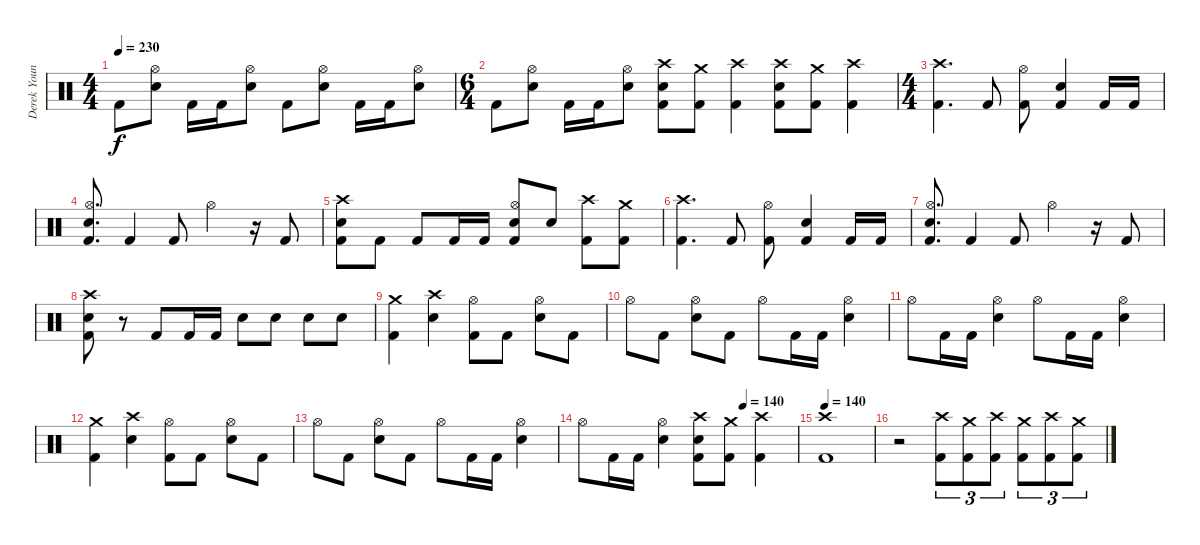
\track ("Derek Youngsma" "Derek Youn") {instrument percussion}
\staff {score}
\articulation defaults
\ts (4 4)
\tempo 230
\clef neutral
\ks c "Kick (hit) 2".8{dy f}
("Hi-Hat (open)" "Electric Snare (hit)").8 "Kick (hit) 2".16 "Kick (hit) 2".16 ("Hi-Hat (open)" "Electric Snare (hit)").8 "Kick (hit) 2".8 ("Hi-Hat (open)" "Electric Snare (hit)").8 "Kick (hit) 2".16 "Kick (hit) 2".16 ("Hi-Hat (open)" "Electric Snare (hit)").8 |
\ts (6 4)
"Kick (hit) 2".8 ("Hi-Hat (open)" "Electric Snare (hit)").8 "Kick (hit) 2".16 "Kick (hit) 2".16 ("Hi-Hat (open)" "Electric Snare (hit)").8 ("Crash high (hit)" "Electric Snare (hit)" "Kick (hit) 2").8 ("Crash medium (hit)" "Kick (hit) 2").8 ("Crash high (hit)" "Kick (hit) 2").4 ("Crash high (hit)" "Electric Snare (hit)" "Kick (hit) 2").8 ("Crash medium (hit)" "Kick (hit) 2").8 ("Crash high (hit)" "Kick (hit) 2").4 |
\ts (4 4)
("Crash high (hit)" "Kick (hit) 2").4{d} "Kick (hit) 2".8 ("Hi-Hat (open)" "Kick (hit) 2").8 ("Electric Snare (hit)" "Kick (hit) 2").4 "Kick (hit) 2".16 "Kick (hit) 2".16 |
("Hi-Hat (open)" "Electric Snare (hit)" "Kick (hit) 2").8{d} "Kick (hit) 2".4 "Kick (hit) 2".8 "Hi-Hat (open)".4 r.16 "Kick (hit) 2".8 |
("Crash high (hit)" "Electric Snare (hit)" "Kick (hit) 2").8 "Kick (hit) 2".8 "Kick (hit) 2".8 "Kick (hit) 2".16 "Kick (hit) 2".16 ("Hi-Hat (open)" "Electric Snare (hit)" "Kick (hit) 2").8 "Electric Snare (hit)".8 ("Crash high (hit)" "Kick (hit) 2").8 ("Crash medium (hit)" "Kick (hit) 2").8 |
("Crash high (hit)" "Kick (hit) 2").4{d} "Kick (hit) 2".8 ("Hi-Hat (open)" "Kick (hit) 2").8 ("Electric Snare (hit)" "Kick (hit) 2").4 "Kick (hit) 2".16 "Kick (hit) 2".16 |
("Hi-Hat (open)" "Electric Snare (hit)" "Kick (hit) 2").8{d} "Kick (hit) 2".4 "Kick (hit) 2".8 "Hi-Hat (open)".4 r.16 "Kick (hit) 2".8 |
("Crash high (hit)" "Electric Snare (hit)" "Kick (hit) 2").8 r.8 "Kick (hit) 2".8 "Kick (hit) 2".16 "Kick (hit) 2".16 "Electric Snare (hit)".8 "Electric Snare (hit)".8 "Electric Snare (hit)".8 "Electric Snare (hit)".8 |
("Crash medium (hit)" "Kick (hit) 2").4 ("Crash high (hit)" "Electric Snare (hit)").4 ("Hi-Hat (open)" "Kick (hit) 2").8 "Kick (hit) 2".8 ("Hi-Hat (open)" "Electric Snare (hit)").8 "Kick (hit) 2".8 |
"Hi-Hat (open)".8 "Kick (hit) 2".8 ("Hi-Hat (open)" "Electric Snare (hit)").8 "Kick (hit) 2".8 "Hi-Hat (open)".8 "Kick (hit) 2".16 "Kick (hit) 2".16 ("Hi-Hat (open)" "Electric Snare (hit)").4 |
"Hi-Hat (open)".8 "Kick (hit) 2".16 "Kick (hit) 2".16 ("Hi-Hat (open)" "Electric Snare (hit)").4 "Hi-Hat (open)".8 "Kick (hit) 2".16 "Kick (hit) 2".16 ("Hi-Hat (open)" "Electric Snare (hit)").4 |
("Crash medium (hit)" "Kick (hit) 2").4 ("Crash high (hit)" "Electric Snare (hit)").4 ("Hi-Hat (open)" "Kick (hit) 2").8 "Kick (hit) 2".8 ("Hi-Hat (open)" "Electric Snare (hit)").8 "Kick (hit) 2".8 |
"Hi-Hat (open)".8 "Kick (hit) 2".8 ("Hi-Hat (open)" "Electric Snare (hit)").8 "Kick (hit) 2".8 "Hi-Hat (open)".8 "Kick (hit) 2".16 "Kick (hit) 2".16 ("Hi-Hat (open)" "Electric Snare (hit)").4 |
\tempo (140 0.75)
"Hi-Hat (open)".8 "Kick (hit) 2".16 "Kick (hit) 2".16 ("Hi-Hat (open)" "Electric Snare (hit)").4 ("Crash high (hit)" "Electric Snare (hit)" "Kick (hit) 2").8 ("Crash medium (hit)" "Kick (hit) 2").8 ("Crash high (hit)" "Kick (hit) 2").4 |
\tempo 140
("Crash high (hit)" "Kick (hit) 2").1 |
r.2 ("Crash high (hit)" "Kick (hit) 2").8{tu (3 2)} ("Crash medium (hit)" "Kick (hit) 2").8{tu (3 2)} ("Crash high (hit)" "Kick (hit) 2").8{tu (3 2)} ("Crash medium (hit)" "Kick (hit) 2").8{tu (3 2)} ("Crash high (hit)" "Kick (hit) 2").8{tu (3 2)} ("Crash medium (hit)" "Kick (hit) 2").8{tu (3 2)}
